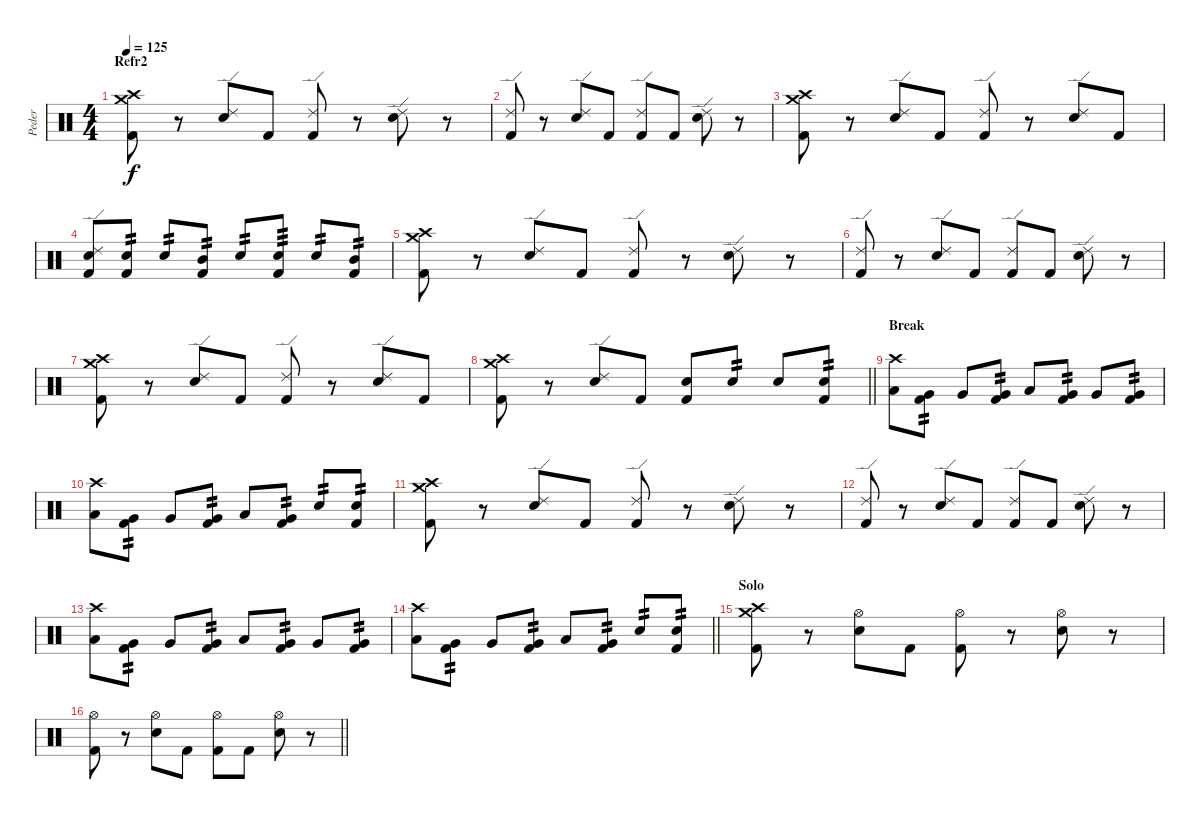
\track ("Peder" "Peder") {instrument percussion}
\staff {score}
\articulation defaults
\ts (4 4)
\section ("" "Refr2")
\tempo 125
\clef neutral
\ks c
("Crash medium (hit)" "Crash high (hit)" "Kick (hit) 2").8{dy f} r.8 ("Ride (edge) 2" "Electric Snare (hit)").8 "Kick (hit) 2".8 ("Ride (edge) 2" "Kick (hit) 2").8 r.8 ("Ride (edge) 2" "Electric Snare (hit)").8 r.8 |
("Ride (edge) 2" "Kick (hit) 2").8 r.8 ("Ride (edge) 2" "Electric Snare (hit)").8 "Kick (hit) 2".8 ("Ride (edge) 2" "Kick (hit) 2").8 "Kick (hit) 2".8 ("Ride (edge) 2" "Electric Snare (hit)").8 r.8 |
("Crash medium (hit)" "Crash high (hit)" "Kick (hit) 2").8 r.8 ("Ride (edge) 2" "Electric Snare (hit)").8 "Kick (hit) 2".8 ("Ride (edge) 2" "Kick (hit) 2").8 r.8 ("Ride (edge) 2" "Electric Snare (hit)").8 "Kick (hit) 2".8 |
("Ride (edge) 2" "Electric Snare (hit)" "Kick (hit) 2").8 ("Electric Snare (hit)" "Kick (hit) 2").8{tp 2} "Electric Snare (hit)".8{tp 2} ("Mid Tom (hit)" "Kick (hit) 2").8{tp 2} "Electric Snare (hit)".8{tp 2} ("Electric Snare (hit)" "Kick (hit) 2").8{tp 3} "Electric Snare (hit)".8{tp 2} ("Mid Tom (hit)" "Kick (hit) 2").8{tp 2} |
("Crash medium (hit)" "Crash high (hit)" "Kick (hit) 2").8 r.8 ("Ride (edge) 2" "Electric Snare (hit)").8 "Kick (hit) 2".8 ("Ride (edge) 2" "Kick (hit) 2").8 r.8 ("Ride (edge) 2" "Electric Snare (hit)").8 r.8 |
("Ride (edge) 2" "Kick (hit) 2").8 r.8 ("Ride (edge) 2" "Electric Snare (hit)").8 "Kick (hit) 2".8 ("Ride (edge) 2" "Kick (hit) 2").8 "Kick (hit) 2".8 ("Ride (edge) 2" "Electric Snare (hit)").8 r.8 |
("Crash medium (hit)" "Crash high (hit)" "Kick (hit) 2").8 r.8 ("Ride (edge) 2" "Electric Snare (hit)").8 "Kick (hit) 2".8 ("Ride (edge) 2" "Kick (hit) 2").8 r.8 ("Ride (edge) 2" "Electric Snare (hit)").8 "Kick (hit) 2".8 |
\barLineRight lightlight
("Crash medium (hit)" "Crash high (hit)" "Kick (hit) 2").8 r.8 ("Ride (edge) 2" "Electric Snare (hit)").8 "Kick (hit) 2".8 ("Electric Snare (hit)" "Kick (hit) 2").8 "Electric Snare (hit)".8{tp 2} "Electric Snare (hit)".8 ("Electric Snare (hit)" "Kick (hit) 2").8{tp 2} |
\section ("" "Break")
("Crash high (hit)" "Low Tom (hit)").8 ("Very Low Tom (hit)" "Kick (hit) 2").8{tp 2} "Very Low Tom (hit)".8 ("Very Low Tom (hit)" "Kick (hit) 2").8{tp 2} "Low Tom (hit)".8 ("Very Low Tom (hit)" "Kick (hit) 2").8{tp 2} "Very Low Tom (hit)".8 ("Very Low Tom (hit)" "Kick (hit) 2").8{tp 2} |
("Crash high (hit)" "Low Tom (hit)").8 ("Very Low Tom (hit)" "Kick (hit) 2").8{tp 2} "Very Low Tom (hit)".8 ("Very Low Tom (hit)" "Kick (hit) 2").8{tp 2} "Low Tom (hit)".8 ("Very Low Tom (hit)" "Kick (hit) 2").8{tp 2} "Electric Snare (hit)".8{tp 2} ("Electric Snare (hit)" "Kick (hit) 2").8{tp 2} |
("Crash medium (hit)" "Crash high (hit)" "Kick (hit) 2").8 r.8 ("Ride (edge) 2" "Electric Snare (hit)").8 "Kick (hit) 2".8 ("Ride (edge) 2" "Kick (hit) 2").8 r.8 ("Ride (edge) 2" "Electric Snare (hit)").8 r.8 |
("Ride (edge) 2" "Kick (hit) 2").8 r.8 ("Ride (edge) 2" "Electric Snare (hit)").8 "Kick (hit) 2".8 ("Ride (edge) 2" "Kick (hit) 2").8 "Kick (hit) 2".8 ("Ride (edge) 2" "Electric Snare (hit)").8 r.8 |
("Crash high (hit)" "Low Tom (hit)").8 ("Very Low Tom (hit)" "Kick (hit) 2").8{tp 2} "Very Low Tom (hit)".8 ("Very Low Tom (hit)" "Kick (hit) 2").8{tp 2} "Low Tom (hit)".8 ("Very Low Tom (hit)" "Kick (hit) 2").8{tp 2} "Very Low Tom (hit)".8 ("Very Low Tom (hit)" "Kick (hit) 2").8{tp 2} |
\barLineRight lightlight
("Crash high (hit)" "Low Tom (hit)").8 ("Very Low Tom (hit)" "Kick (hit) 2").8{tp 2} "Very Low Tom (hit)".8 ("Very Low Tom (hit)" "Kick (hit) 2").8{tp 2} "Low Tom (hit)".8 ("Very Low Tom (hit)" "Kick (hit) 2").8{tp 2} "Electric Snare (hit)".8{tp 2} ("Electric Snare (hit)" "Kick (hit) 2").8{tp 2} |
\section ("" "Solo")
("Crash medium (hit)" "Crash high (hit)" "Kick (hit) 2").8 r.8 ("Hi-Hat (open)" "Electric Snare (hit)").8 "Kick (hit) 2".8 ("Hi-Hat (open)" "Kick (hit) 2").8 r.8 ("Hi-Hat (open)" "Electric Snare (hit)").8 r.8 |
\barLineRight lightlight
("Hi-Hat (open)" "Kick (hit) 2").8 r.8 ("Hi-Hat (open)" "Electric Snare (hit)").8 "Kick (hit) 2".8 ("Hi-Hat (open)" "Kick (hit) 2").8 "Kick (hit) 2".8 ("Hi-Hat (open)" "Electric Snare (hit)").8 r.8
